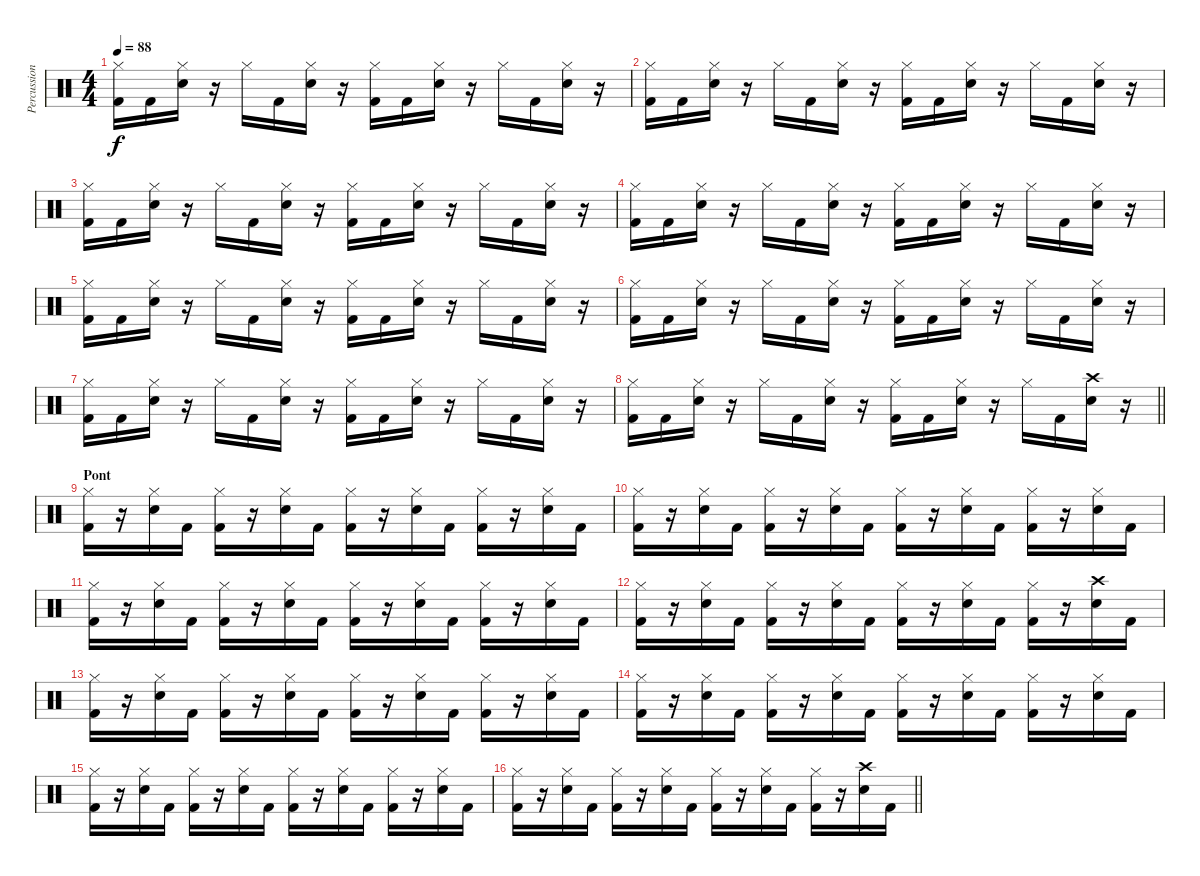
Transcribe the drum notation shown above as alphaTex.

\track ("Percussions" "Percussion") {instrument percussion}
\staff {score}
\articulation defaults
\ts (4 4)
\tempo 88
\clef neutral
\ks c
("Hi-Hat (closed)" "Kick (hit) 2").16{dy f} "Kick (hit) 2".16 ("Hi-Hat (closed)" "Snare (hit) 2").16 r.16 "Hi-Hat (closed)".16 "Kick (hit) 2".16 ("Hi-Hat (closed)" "Snare (hit) 2").16 r.16 ("Hi-Hat (closed)" "Kick (hit) 2").16 "Kick (hit) 2".16 ("Hi-Hat (closed)" "Snare (hit) 2").16 r.16 "Hi-Hat (closed)".16 "Kick (hit) 2".16 ("Hi-Hat (closed)" "Snare (hit) 2").16 r.16 |
("Hi-Hat (closed)" "Kick (hit) 2").16 "Kick (hit) 2".16 ("Hi-Hat (closed)" "Snare (hit) 2").16 r.16 "Hi-Hat (closed)".16 "Kick (hit) 2".16 ("Hi-Hat (closed)" "Snare (hit) 2").16 r.16 ("Hi-Hat (closed)" "Kick (hit) 2").16 "Kick (hit) 2".16 ("Hi-Hat (closed)" "Snare (hit) 2").16 r.16 "Hi-Hat (closed)".16 "Kick (hit) 2".16 ("Hi-Hat (closed)" "Snare (hit) 2").16 r.16 |
("Hi-Hat (closed)" "Kick (hit) 2").16 "Kick (hit) 2".16 ("Hi-Hat (closed)" "Snare (hit) 2").16 r.16 "Hi-Hat (closed)".16 "Kick (hit) 2".16 ("Hi-Hat (closed)" "Snare (hit) 2").16 r.16 ("Hi-Hat (closed)" "Kick (hit) 2").16 "Kick (hit) 2".16 ("Hi-Hat (closed)" "Snare (hit) 2").16 r.16 "Hi-Hat (closed)".16 "Kick (hit) 2".16 ("Hi-Hat (closed)" "Snare (hit) 2").16 r.16 |
("Hi-Hat (closed)" "Kick (hit) 2").16 "Kick (hit) 2".16 ("Hi-Hat (closed)" "Snare (hit) 2").16 r.16 "Hi-Hat (closed)".16 "Kick (hit) 2".16 ("Hi-Hat (closed)" "Snare (hit) 2").16 r.16 ("Hi-Hat (closed)" "Kick (hit) 2").16 "Kick (hit) 2".16 ("Hi-Hat (closed)" "Snare (hit) 2").16 r.16 "Hi-Hat (closed)".16 "Kick (hit) 2".16 ("Hi-Hat (closed)" "Snare (hit) 2").16 r.16 |
("Hi-Hat (closed)" "Kick (hit) 2").16 "Kick (hit) 2".16 ("Hi-Hat (closed)" "Snare (hit) 2").16 r.16 "Hi-Hat (closed)".16 "Kick (hit) 2".16 ("Hi-Hat (closed)" "Snare (hit) 2").16 r.16 ("Hi-Hat (closed)" "Kick (hit) 2").16 "Kick (hit) 2".16 ("Hi-Hat (closed)" "Snare (hit) 2").16 r.16 "Hi-Hat (closed)".16 "Kick (hit) 2".16 ("Hi-Hat (closed)" "Snare (hit) 2").16 r.16 |
("Hi-Hat (closed)" "Kick (hit) 2").16 "Kick (hit) 2".16 ("Hi-Hat (closed)" "Snare (hit) 2").16 r.16 "Hi-Hat (closed)".16 "Kick (hit) 2".16 ("Hi-Hat (closed)" "Snare (hit) 2").16 r.16 ("Hi-Hat (closed)" "Kick (hit) 2").16 "Kick (hit) 2".16 ("Hi-Hat (closed)" "Snare (hit) 2").16 r.16 "Hi-Hat (closed)".16 "Kick (hit) 2".16 ("Hi-Hat (closed)" "Snare (hit) 2").16 r.16 |
("Hi-Hat (closed)" "Kick (hit) 2").16 "Kick (hit) 2".16 ("Hi-Hat (closed)" "Snare (hit) 2").16 r.16 "Hi-Hat (closed)".16 "Kick (hit) 2".16 ("Hi-Hat (closed)" "Snare (hit) 2").16 r.16 ("Hi-Hat (closed)" "Kick (hit) 2").16 "Kick (hit) 2".16 ("Hi-Hat (closed)" "Snare (hit) 2").16 r.16 "Hi-Hat (closed)".16 "Kick (hit) 2".16 ("Hi-Hat (closed)" "Snare (hit) 2").16 r.16 |
\barLineRight lightlight
("Hi-Hat (closed)" "Kick (hit) 2").16 "Kick (hit) 2".16 ("Hi-Hat (closed)" "Snare (hit) 2").16 r.16 "Hi-Hat (closed)".16 "Kick (hit) 2".16 ("Hi-Hat (closed)" "Snare (hit) 2").16 r.16 ("Hi-Hat (closed)" "Kick (hit) 2").16 "Kick (hit) 2".16 ("Hi-Hat (closed)" "Snare (hit) 2").16 r.16 "Hi-Hat (closed)".16 "Kick (hit) 2".16 ("Crash high (hit)" "Snare (hit) 2").16 r.16 |
\section ("" "Pont")
("Hi-Hat (closed)" "Kick (hit) 2").16 r.16 ("Hi-Hat (closed)" "Snare (hit) 2").16 "Kick (hit) 2".16 ("Hi-Hat (closed)" "Kick (hit) 2").16 r.16 ("Hi-Hat (closed)" "Snare (hit) 2").16 "Kick (hit) 2".16 ("Hi-Hat (closed)" "Kick (hit) 2").16 r.16 ("Hi-Hat (closed)" "Snare (hit) 2").16 "Kick (hit) 2".16 ("Hi-Hat (closed)" "Kick (hit) 2").16 r.16 ("Hi-Hat (closed)" "Snare (hit) 2").16 "Kick (hit) 2".16 |
("Hi-Hat (closed)" "Kick (hit) 2").16 r.16 ("Hi-Hat (closed)" "Snare (hit) 2").16 "Kick (hit) 2".16 ("Hi-Hat (closed)" "Kick (hit) 2").16 r.16 ("Hi-Hat (closed)" "Snare (hit) 2").16 "Kick (hit) 2".16 ("Hi-Hat (closed)" "Kick (hit) 2").16 r.16 ("Hi-Hat (closed)" "Snare (hit) 2").16 "Kick (hit) 2".16 ("Hi-Hat (closed)" "Kick (hit) 2").16 r.16 ("Hi-Hat (closed)" "Snare (hit) 2").16 "Kick (hit) 2".16 |
("Hi-Hat (closed)" "Kick (hit) 2").16 r.16 ("Hi-Hat (closed)" "Snare (hit) 2").16 "Kick (hit) 2".16 ("Hi-Hat (closed)" "Kick (hit) 2").16 r.16 ("Hi-Hat (closed)" "Snare (hit) 2").16 "Kick (hit) 2".16 ("Hi-Hat (closed)" "Kick (hit) 2").16 r.16 ("Hi-Hat (closed)" "Snare (hit) 2").16 "Kick (hit) 2".16 ("Hi-Hat (closed)" "Kick (hit) 2").16 r.16 ("Hi-Hat (closed)" "Snare (hit) 2").16 "Kick (hit) 2".16 |
("Hi-Hat (closed)" "Kick (hit) 2").16 r.16 ("Hi-Hat (closed)" "Snare (hit) 2").16 "Kick (hit) 2".16 ("Hi-Hat (closed)" "Kick (hit) 2").16 r.16 ("Hi-Hat (closed)" "Snare (hit) 2").16 "Kick (hit) 2".16 ("Hi-Hat (closed)" "Kick (hit) 2").16 r.16 ("Hi-Hat (closed)" "Snare (hit) 2").16 "Kick (hit) 2".16 ("Hi-Hat (closed)" "Kick (hit) 2").16 r.16 ("Crash high (hit)" "Snare (hit) 2").16 "Kick (hit) 2".16 |
("Hi-Hat (closed)" "Kick (hit) 2").16 r.16 ("Hi-Hat (closed)" "Snare (hit) 2").16 "Kick (hit) 2".16 ("Hi-Hat (closed)" "Kick (hit) 2").16 r.16 ("Hi-Hat (closed)" "Snare (hit) 2").16 "Kick (hit) 2".16 ("Hi-Hat (closed)" "Kick (hit) 2").16 r.16 ("Hi-Hat (closed)" "Snare (hit) 2").16 "Kick (hit) 2".16 ("Hi-Hat (closed)" "Kick (hit) 2").16 r.16 ("Hi-Hat (closed)" "Snare (hit) 2").16 "Kick (hit) 2".16 |
("Hi-Hat (closed)" "Kick (hit) 2").16 r.16 ("Hi-Hat (closed)" "Snare (hit) 2").16 "Kick (hit) 2".16 ("Hi-Hat (closed)" "Kick (hit) 2").16 r.16 ("Hi-Hat (closed)" "Snare (hit) 2").16 "Kick (hit) 2".16 ("Hi-Hat (closed)" "Kick (hit) 2").16 r.16 ("Hi-Hat (closed)" "Snare (hit) 2").16 "Kick (hit) 2".16 ("Hi-Hat (closed)" "Kick (hit) 2").16 r.16 ("Hi-Hat (closed)" "Snare (hit) 2").16 "Kick (hit) 2".16 |
("Hi-Hat (closed)" "Kick (hit) 2").16 r.16 ("Hi-Hat (closed)" "Snare (hit) 2").16 "Kick (hit) 2".16 ("Hi-Hat (closed)" "Kick (hit) 2").16 r.16 ("Hi-Hat (closed)" "Snare (hit) 2").16 "Kick (hit) 2".16 ("Hi-Hat (closed)" "Kick (hit) 2").16 r.16 ("Hi-Hat (closed)" "Snare (hit) 2").16 "Kick (hit) 2".16 ("Hi-Hat (closed)" "Kick (hit) 2").16 r.16 ("Hi-Hat (closed)" "Snare (hit) 2").16 "Kick (hit) 2".16 |
\barLineRight lightlight
("Hi-Hat (closed)" "Kick (hit) 2").16 r.16 ("Hi-Hat (closed)" "Snare (hit) 2").16 "Kick (hit) 2".16 ("Hi-Hat (closed)" "Kick (hit) 2").16 r.16 ("Hi-Hat (closed)" "Snare (hit) 2").16 "Kick (hit) 2".16 ("Hi-Hat (closed)" "Kick (hit) 2").16 r.16 ("Hi-Hat (closed)" "Snare (hit) 2").16 "Kick (hit) 2".16 ("Hi-Hat (closed)" "Kick (hit) 2").16 r.16 ("Crash high (hit)" "Snare (hit) 2").16 "Kick (hit) 2".16
